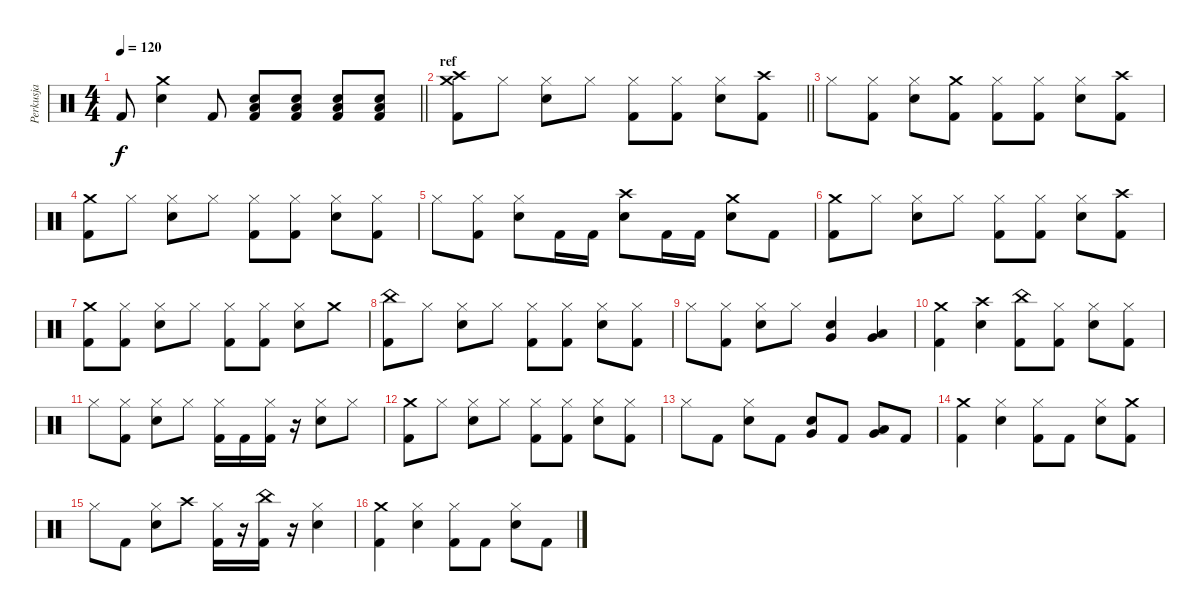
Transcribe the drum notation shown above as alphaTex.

\track ("Perkusja" "Perkusja") {instrument percussion}
\staff {score}
\articulation defaults
\ts (4 4)
\tempo 120
\clef neutral
\barLineRight lightlight
\ks c "Kick (hit) 2".8{dy f}
("Crash medium (hit)" "Snare (hit) 2").4 "Kick (hit) 2".8 ("Kick (hit) 2" "Snare (hit) 2" "Low Floor Tom (hit)").8 ("Kick (hit) 2" "Snare (hit) 2" "Low Floor Tom (hit)").8 ("Kick (hit) 2" "Snare (hit) 2" "Low Floor Tom (hit)").8 ("Kick (hit) 2" "Snare (hit) 2" "Low Floor Tom (hit)").8 |
\section ("" "ref")
\barLineRight lightlight
("Crash high (hit)" "Crash medium (hit)" "Kick (hit) 2").8 "Hi-Hat (closed)".8 ("Hi-Hat (closed)" "Snare (hit) 2").8 "Hi-Hat (closed)".8 ("Hi-Hat (closed)" "Kick (hit) 2").8 ("Hi-Hat (closed)" "Kick (hit) 2").8 ("Hi-Hat (closed)" "Snare (hit) 2").8 ("Crash high (hit)" "Kick (hit) 2").8 |
\section ("" "")
"Hi-Hat (closed)".8 ("Hi-Hat (closed)" "Kick (hit) 2").8 ("Hi-Hat (closed)" "Snare (hit) 2").8 ("Crash medium (hit)" "Kick (hit) 2").8 ("Hi-Hat (closed)" "Kick (hit) 2").8 ("Hi-Hat (closed)" "Kick (hit) 2").8 ("Hi-Hat (closed)" "Snare (hit) 2").8 ("Crash high (hit)" "Kick (hit) 2").8 |
("Crash medium (hit)" "Kick (hit) 2").8 "Hi-Hat (closed)".8 ("Hi-Hat (closed)" "Snare (hit) 2").8 "Hi-Hat (closed)".8 ("Hi-Hat (closed)" "Kick (hit) 2").8 ("Hi-Hat (closed)" "Kick (hit) 2").8 ("Hi-Hat (closed)" "Snare (hit) 2").8 ("Hi-Hat (closed)" "Kick (hit) 2").8 |
"Hi-Hat (closed)".8 ("Hi-Hat (closed)" "Kick (hit) 2").8 ("Hi-Hat (closed)" "Snare (hit) 2").8 "Kick (hit) 2".16 "Kick (hit) 2".16 ("Crash high (hit)" "Snare (hit) 2").8 "Kick (hit) 2".16 "Kick (hit) 2".16 ("Crash medium (hit)" "Snare (hit) 2").8 "Kick (hit) 2".8 |
("Kick (hit) 2" "Crash medium (hit)").8 "Hi-Hat (closed)".8 ("Hi-Hat (closed)" "Snare (hit) 2").8 "Hi-Hat (closed)".8 ("Hi-Hat (closed)" "Kick (hit) 2").8 ("Hi-Hat (closed)" "Kick (hit) 2").8 ("Hi-Hat (closed)" "Snare (hit) 2").8 ("Crash high (hit)" "Kick (hit) 2").8 |
("Crash medium (hit)" "Kick (hit) 2").8 ("Hi-Hat (closed)" "Kick (hit) 2").8 ("Hi-Hat (closed)" "Snare (hit) 2").8 "Hi-Hat (closed)".8 ("Hi-Hat (closed)" "Kick (hit) 2").8 ("Hi-Hat (closed)" "Kick (hit) 2").8 ("Hi-Hat (closed)" "Snare (hit) 2").8 "Crash medium (hit)".8 |
("China (hit)" "Kick (hit) 2").8 "Hi-Hat (closed)".8 ("Hi-Hat (closed)" "Snare (hit) 2").8 "Hi-Hat (closed)".8 ("Hi-Hat (closed)" "Kick (hit) 2").8 ("Hi-Hat (closed)" "Kick (hit) 2").8 ("Hi-Hat (closed)" "Snare (hit) 2").8 ("Hi-Hat (closed)" "Kick (hit) 2").8 |
"Hi-Hat (closed)".8 ("Hi-Hat (closed)" "Kick (hit) 2").8 ("Hi-Hat (closed)" "Snare (hit) 2").8 "Hi-Hat (closed)".8 ("Snare (hit) 2" "Very Low Tom (hit)").4 ("Very Low Tom (hit)" "Low Floor Tom (hit)").4 |
("Kick (hit) 2" "Crash medium (hit)").4 ("Crash high (hit)" "Snare (hit) 2").4 ("China (hit)" "Kick (hit) 2").8 ("Hi-Hat (closed)" "Kick (hit) 2").8 ("Hi-Hat (closed)" "Snare (hit) 2").8 ("Hi-Hat (closed)" "Kick (hit) 2").8 |
"Hi-Hat (closed)".8 ("Hi-Hat (closed)" "Kick (hit) 2").8 ("Hi-Hat (closed)" "Snare (hit) 2").8 "Hi-Hat (closed)".8 ("Hi-Hat (closed)" "Kick (hit) 2").16 "Kick (hit) 2".16 ("Hi-Hat (closed)" "Kick (hit) 2").16 r.16 ("Hi-Hat (closed)" "Snare (hit) 2").8 "Hi-Hat (closed)".8 |
("Crash medium (hit)" "Kick (hit) 2").8 "Hi-Hat (closed)".8 ("Hi-Hat (closed)" "Snare (hit) 2").8 "Hi-Hat (closed)".8 ("Hi-Hat (closed)" "Kick (hit) 2").8 ("Hi-Hat (closed)" "Kick (hit) 2").8 ("Hi-Hat (closed)" "Snare (hit) 2").8 ("Hi-Hat (closed)" "Kick (hit) 2").8 |
"Hi-Hat (closed)".8 "Kick (hit) 2".8 ("Hi-Hat (closed)" "Snare (hit) 2").8 "Kick (hit) 2".8 ("Snare (hit) 2" "Very Low Tom (hit)").8 "Kick (hit) 2".8 ("Very Low Tom (hit)" "Low Floor Tom (hit)").8 "Kick (hit) 2".8 |
("Kick (hit) 2" "Crash medium (hit)").4 ("Hi-Hat (closed)" "Snare (hit) 2").4 ("Hi-Hat (closed)" "Kick (hit) 2").8 "Kick (hit) 2".8 ("Hi-Hat (closed)" "Snare (hit) 2").8 ("Crash medium (hit)" "Kick (hit) 2").8 |
"Hi-Hat (closed)".8 "Kick (hit) 2".8 ("Hi-Hat (closed)" "Snare (hit) 2").8 "Crash high (hit)".8 ("Hi-Hat (closed)" "Kick (hit) 2").16 r.16 ("China (hit)" "Kick (hit) 2").16 r.16 ("Hi-Hat (closed)" "Snare (hit) 2").4 |
("Crash medium (hit)" "Kick (hit) 2").4 ("Hi-Hat (closed)" "Snare (hit) 2").4 ("Hi-Hat (closed)" "Kick (hit) 2").8 "Kick (hit) 2".8 ("Hi-Hat (closed)" "Snare (hit) 2").8 "Kick (hit) 2".8
